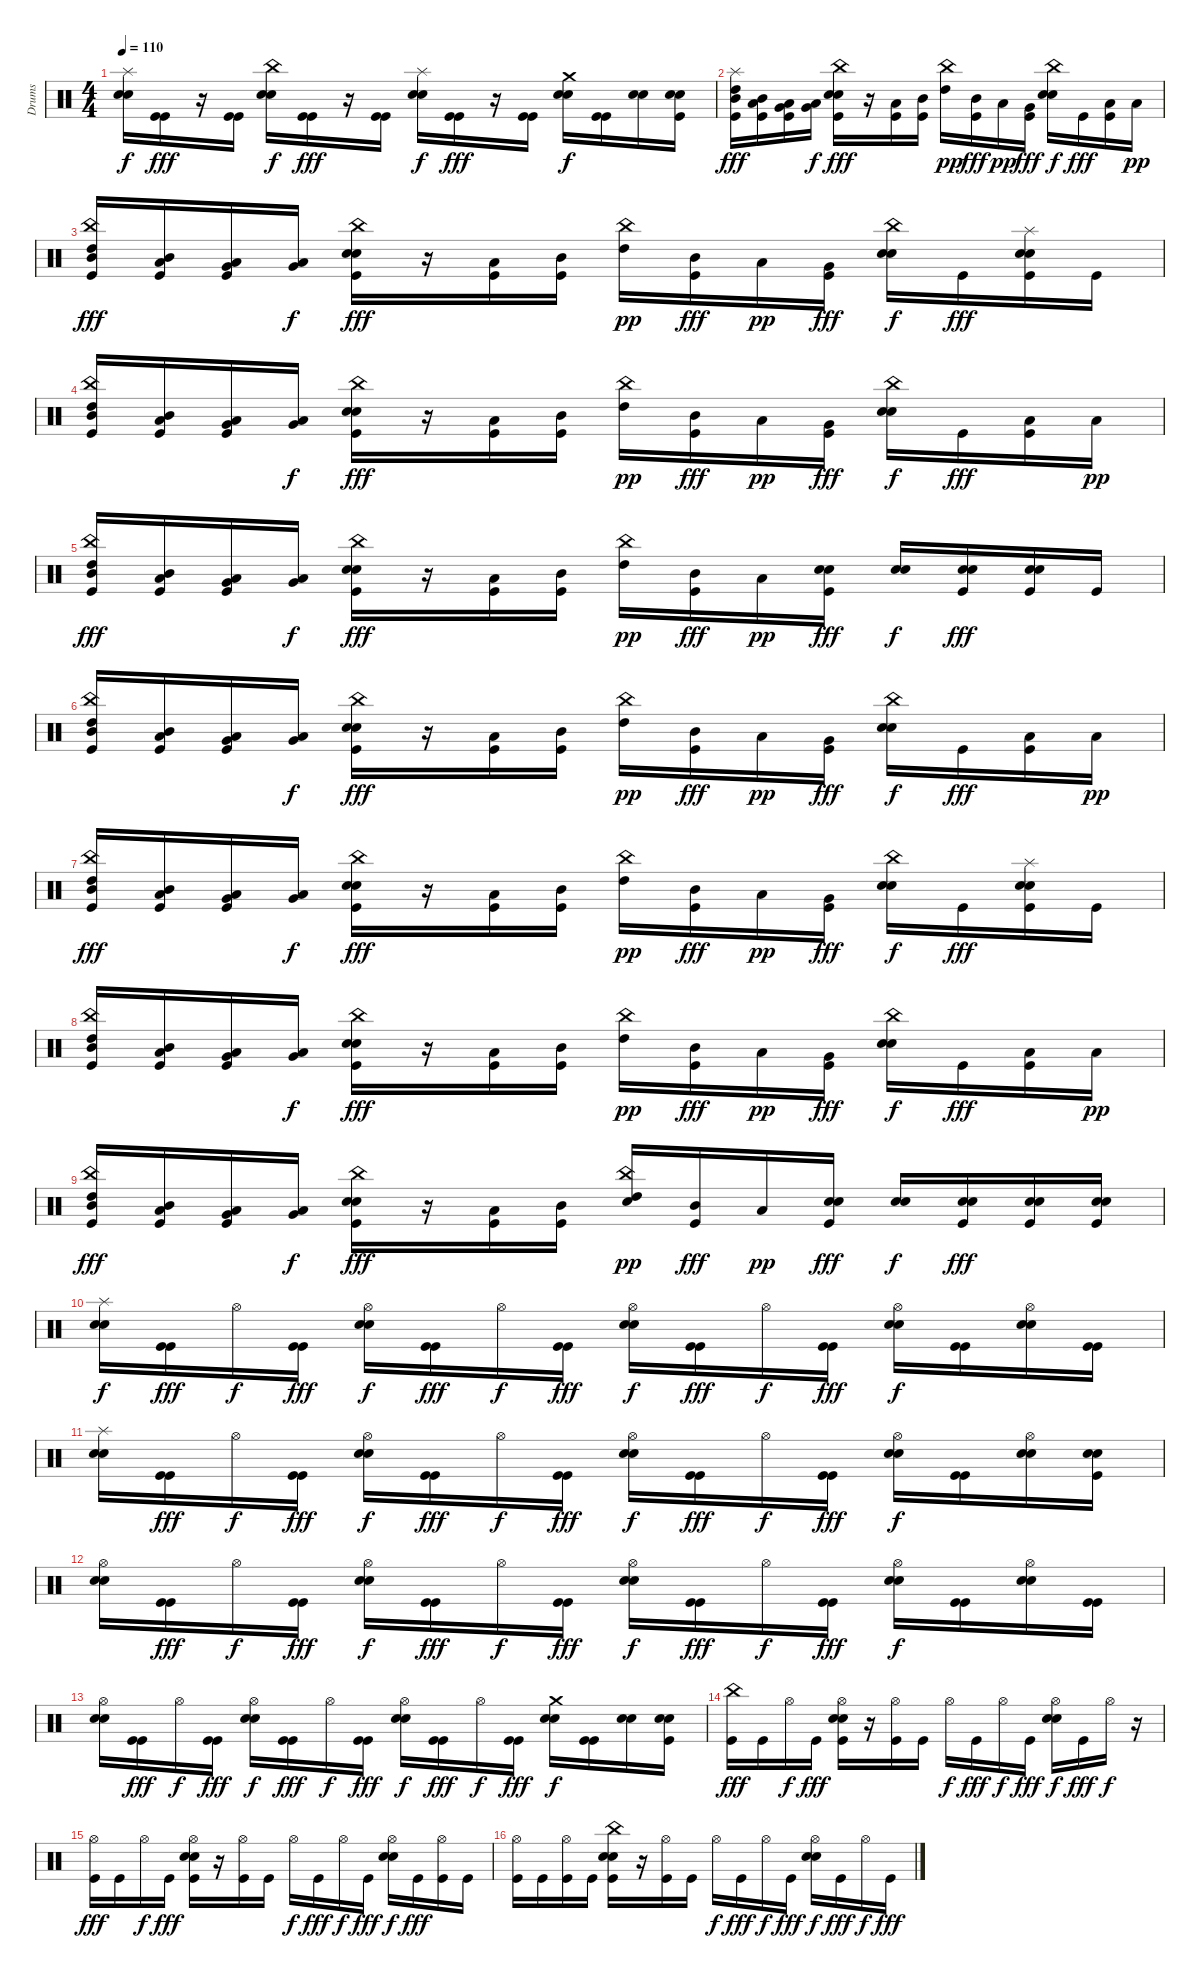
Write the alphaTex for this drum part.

\track ("Drums" "Drums") {instrument percussion}
\staff {score}
\articulation defaults
\ts (4 4)
\tempo 110
\clef neutral
\ks c
("Splash (hit)" "Snare (hit) 2" "Electric Snare (hit)").16{dy f} ("Kick (hit)" "Kick (hit)").16{dy fff} r.16 ("Kick (hit)" "Kick (hit)").16 ("China (hit)" "Snare (hit) 2" "Electric Snare (hit)").16{dy f} ("Kick (hit)" "Kick (hit)").16{dy fff} r.16 ("Kick (hit)" "Kick (hit)").16 ("Splash (hit)" "Snare (hit) 2" "Electric Snare (hit)").16{dy f} ("Kick (hit)" "Kick (hit)").16{dy fff} r.16 ("Kick (hit)" "Kick (hit)").16 ("Crash medium (hit)" "Snare (hit) 2" "Electric Snare (hit)").16{dy f} ("Kick (hit)" "Kick (hit)").16 ("Snare (hit) 2" "Electric Snare (hit)").16 ("Snare (hit) 2" "Electric Snare (hit)" "Kick (hit)").16 |
("Splash (hit)" "Mid Tom (hit)" "High Tom (hit)" "Kick (hit)").16{dy fff} ("Low Tom (hit)" "Mid Tom (hit)" "Kick (hit)").16 ("Very Low Tom (hit)" "Low Tom (hit)" "Kick (hit)").16 ("Low Floor Tom (hit)" "Very Low Tom (hit)").16{dy f} ("China (hit)" "Electric Snare (hit)" "Snare (hit) 2" "Kick (hit)").16{dy fff} r.16 ("Low Tom (hit)" "Kick (hit)").16 ("Mid Tom (hit)" "Kick (hit)").16 ("China (hit)" "High Tom (hit)").16{dy pp} ("Mid Tom (hit)" "Kick (hit)").16{dy fff} "Low Tom (hit)".16{dy pp} ("Very Low Tom (hit)" "Kick (hit)").16{dy fff} ("China (hit)" "Snare (hit) 2" "Electric Snare (hit)").16{dy f} "Kick (hit)".16{dy fff} ("Low Tom (hit)" "Kick (hit)").16 "Low Tom (hit)".16{dy pp} |
("China (hit)" "Mid Tom (hit)" "High Tom (hit)" "Kick (hit)").16{dy fff} ("Low Tom (hit)" "Mid Tom (hit)" "Kick (hit)").16 ("Very Low Tom (hit)" "Low Tom (hit)" "Kick (hit)").16 ("Low Floor Tom (hit)" "Very Low Tom (hit)").16{dy f} ("China (hit)" "Electric Snare (hit)" "Snare (hit) 2" "Kick (hit)").16{dy fff} r.16 ("Low Tom (hit)" "Kick (hit)").16 ("Mid Tom (hit)" "Kick (hit)").16 ("China (hit)" "High Tom (hit)").16{dy pp} ("Mid Tom (hit)" "Kick (hit)").16{dy fff} "Low Tom (hit)".16{dy pp} ("Very Low Tom (hit)" "Kick (hit)").16{dy fff} ("China (hit)" "Snare (hit) 2" "Electric Snare (hit)").16{dy f} "Kick (hit)".16{dy fff} ("Splash (hit)" "Snare (hit) 2" "Electric Snare (hit)" "Kick (hit)").16 "Kick (hit)".16 |
("China (hit)" "Mid Tom (hit)" "High Tom (hit)" "Kick (hit)").16 ("Low Tom (hit)" "Mid Tom (hit)" "Kick (hit)").16 ("Very Low Tom (hit)" "Low Tom (hit)" "Kick (hit)").16 ("Low Floor Tom (hit)" "Very Low Tom (hit)").16{dy f} ("China (hit)" "Electric Snare (hit)" "Snare (hit) 2" "Kick (hit)").16{dy fff} r.16 ("Low Tom (hit)" "Kick (hit)").16 ("Mid Tom (hit)" "Kick (hit)").16 ("China (hit)" "High Tom (hit)").16{dy pp} ("Mid Tom (hit)" "Kick (hit)").16{dy fff} "Low Tom (hit)".16{dy pp} ("Very Low Tom (hit)" "Kick (hit)").16{dy fff} ("China (hit)" "Snare (hit) 2" "Electric Snare (hit)").16{dy f} "Kick (hit)".16{dy fff} ("Low Tom (hit)" "Kick (hit)").16 "Low Tom (hit)".16{dy pp} |
("China (hit)" "Mid Tom (hit)" "High Tom (hit)" "Kick (hit)").16{dy fff} ("Low Tom (hit)" "Mid Tom (hit)" "Kick (hit)").16 ("Very Low Tom (hit)" "Low Tom (hit)" "Kick (hit)").16 ("Low Floor Tom (hit)" "Very Low Tom (hit)").16{dy f} ("China (hit)" "Electric Snare (hit)" "Snare (hit) 2" "Kick (hit)").16{dy fff} r.16 ("Low Tom (hit)" "Kick (hit)").16 ("Mid Tom (hit)" "Kick (hit)").16 ("China (hit)" "High Tom (hit)").16{dy pp} ("Mid Tom (hit)" "Kick (hit)").16{dy fff} "Low Tom (hit)".16{dy pp} ("Snare (hit) 2" "Electric Snare (hit)" "Kick (hit)").16{dy fff} ("Snare (hit) 2" "Electric Snare (hit)").16{dy f} ("Snare (hit) 2" "Electric Snare (hit)" "Kick (hit)").16{dy fff} ("Snare (hit) 2" "Electric Snare (hit)" "Kick (hit)").16 "Kick (hit)".16 |
("China (hit)" "Mid Tom (hit)" "High Tom (hit)" "Kick (hit)").16 ("Low Tom (hit)" "Mid Tom (hit)" "Kick (hit)").16 ("Very Low Tom (hit)" "Low Tom (hit)" "Kick (hit)").16 ("Low Floor Tom (hit)" "Very Low Tom (hit)").16{dy f} ("China (hit)" "Electric Snare (hit)" "Snare (hit) 2" "Kick (hit)").16{dy fff} r.16 ("Low Tom (hit)" "Kick (hit)").16 ("Mid Tom (hit)" "Kick (hit)").16 ("China (hit)" "High Tom (hit)").16{dy pp} ("Mid Tom (hit)" "Kick (hit)").16{dy fff} "Low Tom (hit)".16{dy pp} ("Very Low Tom (hit)" "Kick (hit)").16{dy fff} ("China (hit)" "Snare (hit) 2" "Electric Snare (hit)").16{dy f} "Kick (hit)".16{dy fff} ("Low Tom (hit)" "Kick (hit)").16 "Low Tom (hit)".16{dy pp} |
("China (hit)" "Mid Tom (hit)" "High Tom (hit)" "Kick (hit)").16{dy fff} ("Low Tom (hit)" "Mid Tom (hit)" "Kick (hit)").16 ("Very Low Tom (hit)" "Low Tom (hit)" "Kick (hit)").16 ("Low Floor Tom (hit)" "Very Low Tom (hit)").16{dy f} ("China (hit)" "Electric Snare (hit)" "Snare (hit) 2" "Kick (hit)").16{dy fff} r.16 ("Low Tom (hit)" "Kick (hit)").16 ("Mid Tom (hit)" "Kick (hit)").16 ("China (hit)" "High Tom (hit)").16{dy pp} ("Mid Tom (hit)" "Kick (hit)").16{dy fff} "Low Tom (hit)".16{dy pp} ("Very Low Tom (hit)" "Kick (hit)").16{dy fff} ("China (hit)" "Snare (hit) 2" "Electric Snare (hit)").16{dy f} "Kick (hit)".16{dy fff} ("Splash (hit)" "Snare (hit) 2" "Electric Snare (hit)" "Kick (hit)").16 "Kick (hit)".16 |
("China (hit)" "Mid Tom (hit)" "High Tom (hit)" "Kick (hit)").16 ("Low Tom (hit)" "Mid Tom (hit)" "Kick (hit)").16 ("Very Low Tom (hit)" "Low Tom (hit)" "Kick (hit)").16 ("Low Floor Tom (hit)" "Very Low Tom (hit)").16{dy f} ("China (hit)" "Electric Snare (hit)" "Snare (hit) 2" "Kick (hit)").16{dy fff} r.16 ("Low Tom (hit)" "Kick (hit)").16 ("Mid Tom (hit)" "Kick (hit)").16 ("China (hit)" "High Tom (hit)").16{dy pp} ("Mid Tom (hit)" "Kick (hit)").16{dy fff} "Low Tom (hit)".16{dy pp} ("Very Low Tom (hit)" "Kick (hit)").16{dy fff} ("China (hit)" "Snare (hit) 2" "Electric Snare (hit)").16{dy f} "Kick (hit)".16{dy fff} ("Low Tom (hit)" "Kick (hit)").16 "Low Tom (hit)".16{dy pp} |
("China (hit)" "Mid Tom (hit)" "High Tom (hit)" "Kick (hit)").16{dy fff} ("Low Tom (hit)" "Mid Tom (hit)" "Kick (hit)").16 ("Very Low Tom (hit)" "Low Tom (hit)" "Kick (hit)").16 ("Low Floor Tom (hit)" "Very Low Tom (hit)").16{dy f} ("China (hit)" "Electric Snare (hit)" "Snare (hit) 2" "Kick (hit)").16{dy fff} r.16 ("Low Tom (hit)" "Kick (hit)").16 ("Mid Tom (hit)" "Kick (hit)").16 ("China (hit)" "High Tom (hit)" "Snare (hit) 2").16{dy pp} ("Mid Tom (hit)" "Kick (hit)").16{dy fff} "Low Tom (hit)".16{dy pp} ("Snare (hit) 2" "Electric Snare (hit)" "Kick (hit)").16{dy fff} ("Snare (hit) 2" "Electric Snare (hit)").16{dy f} ("Snare (hit) 2" "Electric Snare (hit)" "Kick (hit)").16{dy fff} ("Snare (hit) 2" "Electric Snare (hit)" "Kick (hit)").16 ("Snare (hit) 2" "Electric Snare (hit)" "Kick (hit)").16 |
("Splash (hit)" "Snare (hit) 2" "Electric Snare (hit)").16{dy f} ("Kick (hit)" "Kick (hit)").16{dy fff} "Hi-Hat (open)".16{dy f} ("Kick (hit)" "Kick (hit)").16{dy fff} ("Hi-Hat (open)" "Snare (hit) 2" "Electric Snare (hit)").16{dy f} ("Kick (hit)" "Kick (hit)").16{dy fff} "Hi-Hat (open)".16{dy f} ("Kick (hit)" "Kick (hit)").16{dy fff} ("Hi-Hat (open)" "Snare (hit) 2" "Electric Snare (hit)").16{dy f} ("Kick (hit)" "Kick (hit)").16{dy fff} "Hi-Hat (open)".16{dy f} ("Kick (hit)" "Kick (hit)").16{dy fff} ("Hi-Hat (open)" "Snare (hit) 2" "Electric Snare (hit)").16{dy f} ("Kick (hit)" "Kick (hit)").16 ("Hi-Hat (open)" "Snare (hit) 2" "Electric Snare (hit)").16 ("Kick (hit)" "Kick (hit)").16 |
("Splash (hit)" "Snare (hit) 2" "Electric Snare (hit)").16 ("Kick (hit)" "Kick (hit)").16{dy fff} "Hi-Hat (open)".16{dy f} ("Kick (hit)" "Kick (hit)").16{dy fff} ("Hi-Hat (open)" "Snare (hit) 2" "Electric Snare (hit)").16{dy f} ("Kick (hit)" "Kick (hit)").16{dy fff} "Hi-Hat (open)".16{dy f} ("Kick (hit)" "Kick (hit)").16{dy fff} ("Hi-Hat (open)" "Snare (hit) 2" "Electric Snare (hit)").16{dy f} ("Kick (hit)" "Kick (hit)").16{dy fff} "Hi-Hat (open)".16{dy f} ("Kick (hit)" "Kick (hit)").16{dy fff} ("Hi-Hat (open)" "Snare (hit) 2" "Electric Snare (hit)").16{dy f} ("Kick (hit)" "Kick (hit)").16 ("Hi-Hat (open)" "Snare (hit) 2" "Electric Snare (hit)").16 ("Snare (hit) 2" "Electric Snare (hit)" "Kick (hit)").16 |
("Hi-Hat (open)" "Snare (hit) 2" "Electric Snare (hit)").16 ("Kick (hit)" "Kick (hit)").16{dy fff} "Hi-Hat (open)".16{dy f} ("Kick (hit)" "Kick (hit)").16{dy fff} ("Hi-Hat (open)" "Snare (hit) 2" "Electric Snare (hit)").16{dy f} ("Kick (hit)" "Kick (hit)").16{dy fff} "Hi-Hat (open)".16{dy f} ("Kick (hit)" "Kick (hit)").16{dy fff} ("Hi-Hat (open)" "Snare (hit) 2" "Electric Snare (hit)").16{dy f} ("Kick (hit)" "Kick (hit)").16{dy fff} "Hi-Hat (open)".16{dy f} ("Kick (hit)" "Kick (hit)").16{dy fff} ("Hi-Hat (open)" "Snare (hit) 2" "Electric Snare (hit)").16{dy f} ("Kick (hit)" "Kick (hit)").16 ("Hi-Hat (open)" "Snare (hit) 2" "Electric Snare (hit)").16 ("Kick (hit)" "Kick (hit)").16 |
("Hi-Hat (open)" "Snare (hit) 2" "Electric Snare (hit)").16 ("Kick (hit)" "Kick (hit)").16{dy fff} "Hi-Hat (open)".16{dy f} ("Kick (hit)" "Kick (hit)").16{dy fff} ("Hi-Hat (open)" "Snare (hit) 2" "Electric Snare (hit)").16{dy f} ("Kick (hit)" "Kick (hit)").16{dy fff} "Hi-Hat (open)".16{dy f} ("Kick (hit)" "Kick (hit)").16{dy fff} ("Hi-Hat (open)" "Snare (hit) 2" "Electric Snare (hit)").16{dy f} ("Kick (hit)" "Kick (hit)").16{dy fff} "Hi-Hat (open)".16{dy f} ("Kick (hit)" "Kick (hit)").16{dy fff} ("Crash medium (hit)" "Snare (hit) 2" "Electric Snare (hit)").16{dy f} ("Kick (hit)" "Kick (hit)").16 ("Snare (hit) 2" "Electric Snare (hit)").16 ("Snare (hit) 2" "Electric Snare (hit)" "Kick (hit)").16 |
("China (hit)" "Kick (hit)").16{dy fff} "Kick (hit)".16 "Hi-Hat (open)".16{dy f} "Kick (hit)".16{dy fff} ("Hi-Hat (open)" "Electric Snare (hit)" "Snare (hit) 2" "Kick (hit)").16 r.16 ("Hi-Hat (open)" "Kick (hit)").16 "Kick (hit)".16 "Hi-Hat (open)".16{dy f} "Kick (hit)".16{dy fff} "Hi-Hat (open)".16{dy f} "Kick (hit)".16{dy fff} ("Hi-Hat (open)" "Snare (hit) 2" "Electric Snare (hit)").16{dy f} "Kick (hit)".16{dy fff} "Hi-Hat (open)".16{dy f} r.16 |
("Hi-Hat (open)" "Kick (hit)").16{dy fff} "Kick (hit)".16 "Hi-Hat (open)".16{dy f} "Kick (hit)".16{dy fff} ("Hi-Hat (open)" "Electric Snare (hit)" "Snare (hit) 2" "Kick (hit)").16 r.16 ("Hi-Hat (open)" "Kick (hit)").16 "Kick (hit)".16 "Hi-Hat (open)".16{dy f} "Kick (hit)".16{dy fff} "Hi-Hat (open)".16{dy f} "Kick (hit)".16{dy fff} ("Hi-Hat (open)" "Snare (hit) 2" "Electric Snare (hit)").16{dy f} "Kick (hit)".16{dy fff} ("Hi-Hat (open)" "Kick (hit)").16 "Kick (hit)".16 |
("Hi-Hat (open)" "Kick (hit)").16 "Kick (hit)".16 ("Hi-Hat (open)" "Kick (hit)").16 "Kick (hit)".16 ("China (hit)" "Electric Snare (hit)" "Snare (hit) 2" "Kick (hit)").16 r.16 ("Hi-Hat (open)" "Kick (hit)").16 "Kick (hit)".16 "Hi-Hat (open)".16{dy f} "Kick (hit)".16{dy fff} "Hi-Hat (open)".16{dy f} "Kick (hit)".16{dy fff} ("Hi-Hat (open)" "Snare (hit) 2" "Electric Snare (hit)").16{dy f} "Kick (hit)".16{dy fff} "Hi-Hat (open)".16{dy f} "Kick (hit)".16{dy fff}
